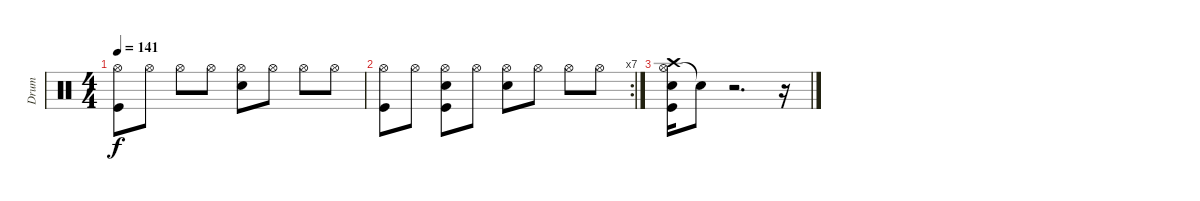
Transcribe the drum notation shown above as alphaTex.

\track ("Drum" "Drum") {instrument percussion}
\staff {score}
\articulation defaults
\ts (4 4)
\tempo 141
\clef neutral
\ks c
("Hi-Hat (open)" "Kick (hit)").8{dy f} "Hi-Hat (open)".8 "Hi-Hat (open)".8 "Hi-Hat (open)".8 ("Hi-Hat (open)" "Electric Snare (hit)").8 "Hi-Hat (open)".8 "Hi-Hat (open)".8 "Hi-Hat (open)".8 |
\rc 7
("Hi-Hat (open)" "Kick (hit)").8 "Hi-Hat (open)".8 ("Hi-Hat (open)" "Electric Snare (hit)" "Kick (hit)").8 "Hi-Hat (open)".8 ("Hi-Hat (open)" "Electric Snare (hit)").8 "Hi-Hat (open)".8 "Hi-Hat (open)".8 "Hi-Hat (open)".8 |
("Hi-Hat (open)" "Crash high (hit)" "Electric Snare (hit)" "Kick (hit)").16 "Snare (hit)"{t}.8 r.2{d} r.16
